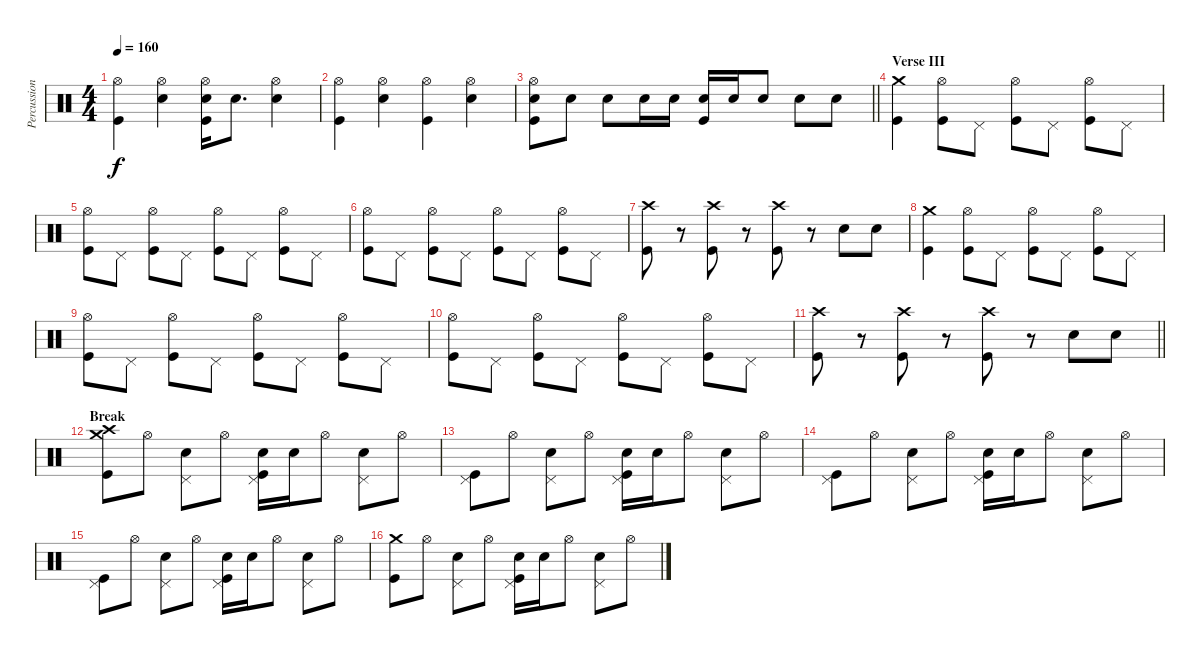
\track ("Percussion" "Percussion") {instrument percussion}
\staff {score}
\articulation defaults
\ts (4 4)
\tempo 160
\clef neutral
\ks c
("Hi-Hat (open)" "Kick (hit)").4{dy f} ("Hi-Hat (open)" "Electric Snare (hit)").4 ("Hi-Hat (open)" "Electric Snare (hit)" "Kick (hit)").16 "Electric Snare (hit)".8{d} ("Hi-Hat (open)" "Electric Snare (hit)").4 |
("Hi-Hat (open)" "Kick (hit)").4 ("Hi-Hat (open)" "Electric Snare (hit)").4 ("Hi-Hat (open)" "Kick (hit)").4 ("Hi-Hat (open)" "Electric Snare (hit)").4 |
\barLineRight lightlight
("Hi-Hat (open)" "Electric Snare (hit)" "Kick (hit)").8 "Electric Snare (hit)".8 "Electric Snare (hit)".8 "Electric Snare (hit)".16 "Electric Snare (hit)".16 ("Electric Snare (hit)" "Kick (hit)").16 "Electric Snare (hit)".16 "Electric Snare (hit)".8 "Electric Snare (hit)".8 "Electric Snare (hit)".8 |
\section ("" "Verse III")
("Crash medium (hit)" "Kick (hit)").4 ("Hi-Hat (open)" "Kick (hit)").8 "Pedal Hi-Hat (hit)".8 ("Hi-Hat (open)" "Kick (hit)").8 "Pedal Hi-Hat (hit)".8 ("Hi-Hat (open)" "Kick (hit)").8 "Pedal Hi-Hat (hit)".8 |
("Hi-Hat (open)" "Kick (hit)").8 "Pedal Hi-Hat (hit)".8 ("Hi-Hat (open)" "Kick (hit)").8 "Pedal Hi-Hat (hit)".8 ("Hi-Hat (open)" "Kick (hit)").8 "Pedal Hi-Hat (hit)".8 ("Hi-Hat (open)" "Kick (hit)").8 "Pedal Hi-Hat (hit)".8 |
("Hi-Hat (open)" "Kick (hit)").8 "Pedal Hi-Hat (hit)".8 ("Hi-Hat (open)" "Kick (hit)").8 "Pedal Hi-Hat (hit)".8 ("Hi-Hat (open)" "Kick (hit)").8 "Pedal Hi-Hat (hit)".8 ("Hi-Hat (open)" "Kick (hit)").8 "Pedal Hi-Hat (hit)".8 |
("Crash high (hit)" "Kick (hit)").8 r.8{volume 0} ("Crash high (hit)" "Kick (hit)").8{volume 13} r.8{volume 0} ("Crash high (hit)" "Kick (hit)").8{volume 13} r.8{volume 0} "Hand Clap (hit)".8{volume 13} "Hand Clap (hit)".8 |
("Crash medium (hit)" "Kick (hit)").4 ("Hi-Hat (open)" "Kick (hit)").8 "Pedal Hi-Hat (hit)".8 ("Hi-Hat (open)" "Kick (hit)").8 "Pedal Hi-Hat (hit)".8 ("Hi-Hat (open)" "Kick (hit)").8 "Pedal Hi-Hat (hit)".8 |
("Hi-Hat (open)" "Kick (hit)").8 "Pedal Hi-Hat (hit)".8 ("Hi-Hat (open)" "Kick (hit)").8 "Pedal Hi-Hat (hit)".8 ("Hi-Hat (open)" "Kick (hit)").8 "Pedal Hi-Hat (hit)".8 ("Hi-Hat (open)" "Kick (hit)").8 "Pedal Hi-Hat (hit)".8 |
("Hi-Hat (open)" "Kick (hit)").8 "Pedal Hi-Hat (hit)".8 ("Hi-Hat (open)" "Kick (hit)").8 "Pedal Hi-Hat (hit)".8 ("Hi-Hat (open)" "Kick (hit)").8 "Pedal Hi-Hat (hit)".8 ("Hi-Hat (open)" "Kick (hit)").8 "Pedal Hi-Hat (hit)".8 |
\barLineRight lightlight
("Crash high (hit)" "Kick (hit)").8 r.8{volume 0} ("Crash high (hit)" "Kick (hit)").8{volume 13} r.8{volume 0} ("Crash high (hit)" "Kick (hit)").8{volume 13} r.8{volume 0} "Hand Clap (hit)".8{volume 13} "Hand Clap (hit)".8 |
\section ("" "Break")
("Crash high (hit)" "Crash medium (hit)" "Kick (hit)").8 "Hi-Hat (open)".8 ("Pedal Hi-Hat (hit)" "Electric Snare (hit)").8 "Hi-Hat (open)".8 ("Pedal Hi-Hat (hit)" "Electric Snare (hit)" "Kick (hit)").16 "Electric Snare (hit)".16 "Hi-Hat (open)".8 ("Pedal Hi-Hat (hit)" "Electric Snare (hit)").8 "Hi-Hat (open)".8 |
("Pedal Hi-Hat (hit)" "Kick (hit)").8 "Hi-Hat (open)".8 ("Pedal Hi-Hat (hit)" "Electric Snare (hit)").8 "Hi-Hat (open)".8 ("Pedal Hi-Hat (hit)" "Electric Snare (hit)" "Kick (hit)").16 "Electric Snare (hit)".16 "Hi-Hat (open)".8 ("Pedal Hi-Hat (hit)" "Electric Snare (hit)").8 "Hi-Hat (open)".8 |
("Pedal Hi-Hat (hit)" "Kick (hit)").8 "Hi-Hat (open)".8 ("Pedal Hi-Hat (hit)" "Electric Snare (hit)").8 "Hi-Hat (open)".8 ("Pedal Hi-Hat (hit)" "Electric Snare (hit)" "Kick (hit)").16 "Electric Snare (hit)".16 "Hi-Hat (open)".8 ("Pedal Hi-Hat (hit)" "Electric Snare (hit)").8 "Hi-Hat (open)".8 |
("Pedal Hi-Hat (hit)" "Kick (hit)").8 "Hi-Hat (open)".8 ("Pedal Hi-Hat (hit)" "Electric Snare (hit)").8 "Hi-Hat (open)".8 ("Pedal Hi-Hat (hit)" "Electric Snare (hit)" "Kick (hit)").16 "Electric Snare (hit)".16 "Hi-Hat (open)".8 ("Pedal Hi-Hat (hit)" "Electric Snare (hit)").8 "Hi-Hat (open)".8 |
("Crash medium (hit)" "Kick (hit)").8 "Hi-Hat (open)".8 ("Pedal Hi-Hat (hit)" "Electric Snare (hit)").8 "Hi-Hat (open)".8 ("Pedal Hi-Hat (hit)" "Electric Snare (hit)" "Kick (hit)").16 "Electric Snare (hit)".16 "Hi-Hat (open)".8 ("Pedal Hi-Hat (hit)" "Electric Snare (hit)").8 "Hi-Hat (open)".8
